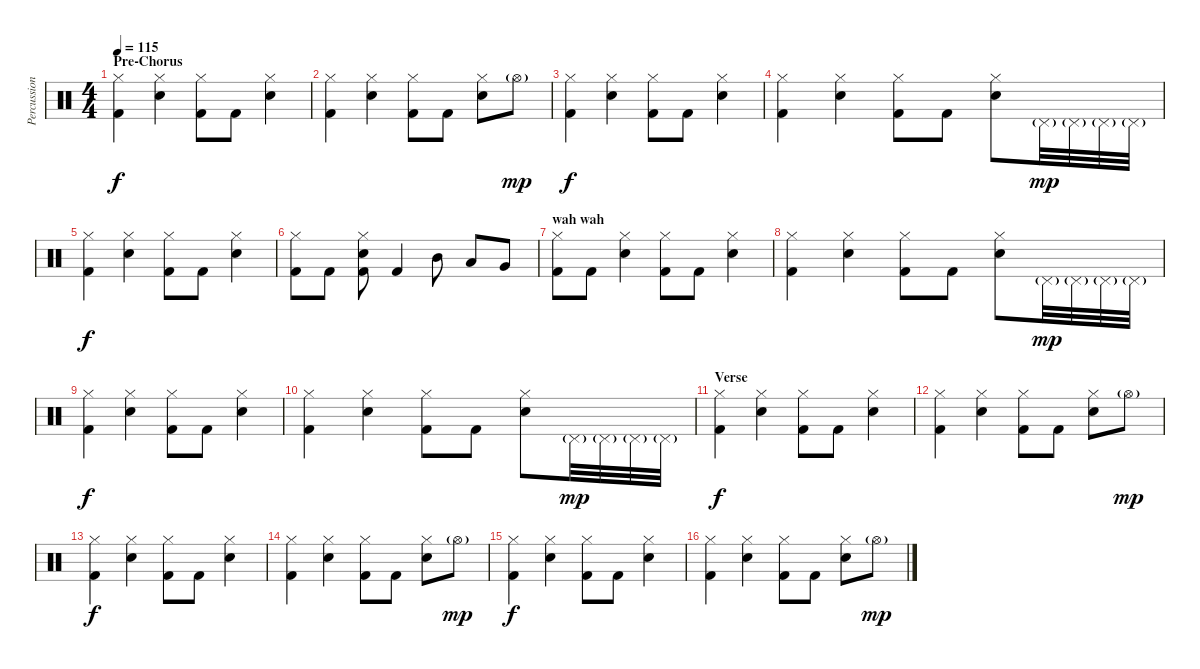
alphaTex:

\track ("Percussion" "Percussion") {instrument percussion}
\staff {score}
\articulation defaults
\ts (4 4)
\section ("" "Pre-Chorus")
\tempo 115
\clef neutral
\ks c
("Hi-Hat (closed)" "Kick (hit) 2").4{dy f} ("Hi-Hat (closed)" "Snare (hit) 2").4 ("Hi-Hat (closed)" "Kick (hit) 2").8 "Kick (hit) 2".8 ("Hi-Hat (closed)" "Snare (hit) 2").4 |
("Hi-Hat (closed)" "Kick (hit) 2").4 ("Hi-Hat (closed)" "Snare (hit) 2").4 ("Hi-Hat (closed)" "Kick (hit) 2").8 "Kick (hit) 2".8 ("Hi-Hat (closed)" "Snare (hit) 2").8 "Hi-Hat (open)"{g}.8{dy mp} |
("Hi-Hat (closed)" "Kick (hit) 2").4{dy f} ("Hi-Hat (closed)" "Snare (hit) 2").4 ("Hi-Hat (closed)" "Kick (hit) 2").8 "Kick (hit) 2".8 ("Hi-Hat (closed)" "Snare (hit) 2").4 |
("Hi-Hat (closed)" "Kick (hit) 2").4 ("Hi-Hat (closed)" "Snare (hit) 2").4 ("Hi-Hat (closed)" "Kick (hit) 2").8 "Kick (hit) 2".8 ("Hi-Hat (closed)" "Snare (hit) 2").8 "Pedal Hi-Hat (hit)"{g}.32{dy mp} "Pedal Hi-Hat (hit)"{g}.32 "Pedal Hi-Hat (hit)"{g}.32 "Pedal Hi-Hat (hit)"{g}.32 |
("Hi-Hat (closed)" "Kick (hit) 2").4{dy f} ("Hi-Hat (closed)" "Snare (hit) 2").4 ("Hi-Hat (closed)" "Kick (hit) 2").8 "Kick (hit) 2".8 ("Hi-Hat (closed)" "Snare (hit) 2").4 |
("Hi-Hat (closed)" "Kick (hit) 2").8 "Kick (hit) 2".8 ("Hi-Hat (closed)" "Snare (hit) 2" "Kick (hit) 2").8 "Kick (hit) 2".4 "Mid Tom (hit)".8 "Low Tom (hit)".8 "Very Low Tom (hit)".8 |
\section ("" "wah wah")
("Hi-Hat (closed)" "Kick (hit) 2").8 "Kick (hit) 2".8 ("Hi-Hat (closed)" "Snare (hit) 2").4 ("Hi-Hat (closed)" "Kick (hit) 2").8 "Kick (hit) 2".8 ("Hi-Hat (closed)" "Snare (hit) 2").4 |
("Hi-Hat (closed)" "Kick (hit) 2").4 ("Hi-Hat (closed)" "Snare (hit) 2").4 ("Hi-Hat (closed)" "Kick (hit) 2").8 "Kick (hit) 2".8 ("Hi-Hat (closed)" "Snare (hit) 2").8 "Pedal Hi-Hat (hit)"{g}.32{dy mp} "Pedal Hi-Hat (hit)"{g}.32 "Pedal Hi-Hat (hit)"{g}.32 "Pedal Hi-Hat (hit)"{g}.32 |
("Hi-Hat (closed)" "Kick (hit) 2").4{dy f} ("Hi-Hat (closed)" "Snare (hit) 2").4 ("Hi-Hat (closed)" "Kick (hit) 2").8 "Kick (hit) 2".8 ("Hi-Hat (closed)" "Snare (hit) 2").4 |
("Hi-Hat (closed)" "Kick (hit) 2").4 ("Hi-Hat (closed)" "Snare (hit) 2").4 ("Hi-Hat (closed)" "Kick (hit) 2").8 "Kick (hit) 2".8 ("Hi-Hat (closed)" "Snare (hit) 2").8 "Pedal Hi-Hat (hit)"{g}.32{dy mp} "Pedal Hi-Hat (hit)"{g}.32 "Pedal Hi-Hat (hit)"{g}.32 "Pedal Hi-Hat (hit)"{g}.32 |
\section ("" "Verse")
("Hi-Hat (closed)" "Kick (hit) 2").4{dy f} ("Hi-Hat (closed)" "Snare (hit) 2").4 ("Hi-Hat (closed)" "Kick (hit) 2").8 "Kick (hit) 2".8 ("Hi-Hat (closed)" "Snare (hit) 2").4 |
("Hi-Hat (closed)" "Kick (hit) 2").4 ("Hi-Hat (closed)" "Snare (hit) 2").4 ("Hi-Hat (closed)" "Kick (hit) 2").8 "Kick (hit) 2".8 ("Hi-Hat (closed)" "Snare (hit) 2").8 "Hi-Hat (open)"{g}.8{dy mp} |
("Hi-Hat (closed)" "Kick (hit) 2").4{dy f} ("Hi-Hat (closed)" "Snare (hit) 2").4 ("Hi-Hat (closed)" "Kick (hit) 2").8 "Kick (hit) 2".8 ("Hi-Hat (closed)" "Snare (hit) 2").4 |
("Hi-Hat (closed)" "Kick (hit) 2").4 ("Hi-Hat (closed)" "Snare (hit) 2").4 ("Hi-Hat (closed)" "Kick (hit) 2").8 "Kick (hit) 2".8 ("Hi-Hat (closed)" "Snare (hit) 2").8 "Hi-Hat (open)"{g}.8{dy mp} |
("Hi-Hat (closed)" "Kick (hit) 2").4{dy f} ("Hi-Hat (closed)" "Snare (hit) 2").4 ("Hi-Hat (closed)" "Kick (hit) 2").8 "Kick (hit) 2".8 ("Hi-Hat (closed)" "Snare (hit) 2").4 |
("Hi-Hat (closed)" "Kick (hit) 2").4 ("Hi-Hat (closed)" "Snare (hit) 2").4 ("Hi-Hat (closed)" "Kick (hit) 2").8 "Kick (hit) 2".8 ("Hi-Hat (closed)" "Snare (hit) 2").8 "Hi-Hat (open)"{g}.8{dy mp}
